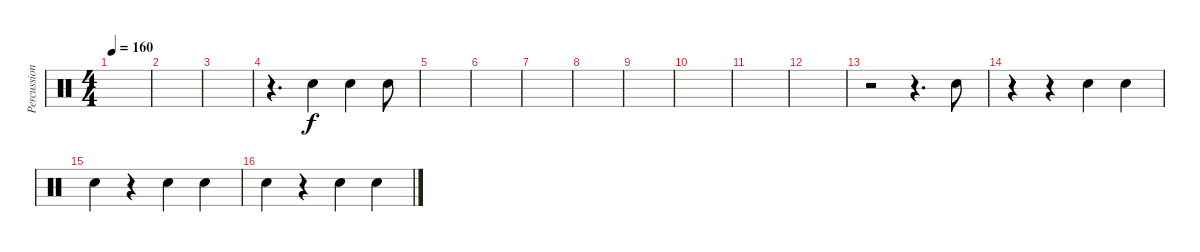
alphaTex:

\track ("Percussions" "Percussion") {instrument percussion}
\staff {score}
\articulation defaults
\ts (4 4)
\tempo 160
\clef neutral
\ks c
|
|
|
r.4{d} "Snare (hit) 2".4 "Snare (hit) 2".4 "Snare (hit) 2".8 |
|
|
|
|
|
|
|
|
r.2 r.4{d} "Snare (hit) 2".8 |
r.4 r.4 "Snare (hit) 2".4 "Snare (hit) 2".4 |
"Snare (hit) 2".4 r.4 "Snare (hit) 2".4 "Snare (hit) 2".4 |
"Snare (hit) 2".4 r.4 "Snare (hit) 2".4 "Snare (hit) 2".4
